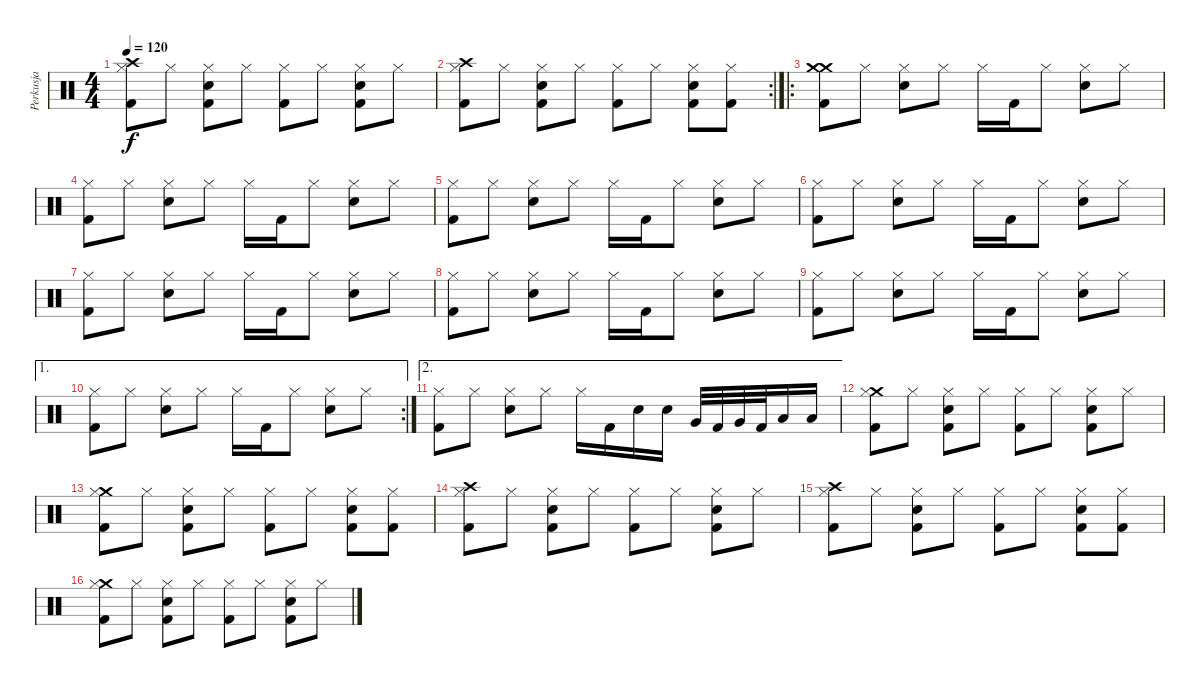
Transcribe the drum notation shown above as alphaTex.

\track ("Perkusja" "Perkusja") {instrument percussion}
\staff {score}
\articulation defaults
\ts (4 4)
\tempo 120
\clef neutral
\ks c
("Crash high (hit)" "Hi-Hat (closed)" "Kick (hit) 2").8{dy f} "Hi-Hat (closed)".8 ("Hi-Hat (closed)" "Electric Snare (hit)" "Kick (hit) 2").8 "Hi-Hat (closed)".8 ("Hi-Hat (closed)" "Kick (hit) 2").8 "Hi-Hat (closed)".8 ("Hi-Hat (closed)" "Electric Snare (hit)" "Kick (hit) 2").8 "Hi-Hat (closed)".8 |
\rc 2
("Crash high (hit)" "Hi-Hat (closed)" "Kick (hit) 2").8 "Hi-Hat (closed)".8 ("Hi-Hat (closed)" "Electric Snare (hit)" "Kick (hit) 2").8 "Hi-Hat (closed)".8 ("Hi-Hat (closed)" "Kick (hit) 2").8 "Hi-Hat (closed)".8 ("Hi-Hat (closed)" "Electric Snare (hit)" "Kick (hit) 2").8 ("Hi-Hat (closed)" "Kick (hit) 2").8 |
\ro
("Crash medium (hit)" "Crash medium (hit)" "Kick (hit) 2").8 "Hi-Hat (closed)".8 ("Hi-Hat (closed)" "Electric Snare (hit)").8 "Hi-Hat (closed)".8 "Hi-Hat (closed)".16 "Kick (hit) 2".16 "Hi-Hat (closed)".8 ("Hi-Hat (closed)" "Electric Snare (hit)").8 "Hi-Hat (closed)".8 |
("Hi-Hat (closed)" "Kick (hit) 2").8 "Hi-Hat (closed)".8 ("Hi-Hat (closed)" "Electric Snare (hit)").8 "Hi-Hat (closed)".8 "Hi-Hat (closed)".16 "Kick (hit) 2".16 "Hi-Hat (closed)".8 ("Hi-Hat (closed)" "Electric Snare (hit)").8 "Hi-Hat (closed)".8 |
("Hi-Hat (closed)" "Kick (hit) 2").8 "Hi-Hat (closed)".8 ("Hi-Hat (closed)" "Electric Snare (hit)").8 "Hi-Hat (closed)".8 "Hi-Hat (closed)".16 "Kick (hit) 2".16 "Hi-Hat (closed)".8 ("Hi-Hat (closed)" "Electric Snare (hit)").8 "Hi-Hat (closed)".8 |
("Hi-Hat (closed)" "Kick (hit) 2").8 "Hi-Hat (closed)".8 ("Hi-Hat (closed)" "Electric Snare (hit)").8 "Hi-Hat (closed)".8 "Hi-Hat (closed)".16 "Kick (hit) 2".16 "Hi-Hat (closed)".8 ("Hi-Hat (closed)" "Electric Snare (hit)").8 "Hi-Hat (closed)".8 |
("Hi-Hat (closed)" "Kick (hit) 2").8 "Hi-Hat (closed)".8 ("Hi-Hat (closed)" "Electric Snare (hit)").8 "Hi-Hat (closed)".8 "Hi-Hat (closed)".16 "Kick (hit) 2".16 "Hi-Hat (closed)".8 ("Hi-Hat (closed)" "Electric Snare (hit)").8 "Hi-Hat (closed)".8 |
("Hi-Hat (closed)" "Kick (hit) 2").8 "Hi-Hat (closed)".8 ("Hi-Hat (closed)" "Electric Snare (hit)").8 "Hi-Hat (closed)".8 "Hi-Hat (closed)".16 "Kick (hit) 2".16 "Hi-Hat (closed)".8 ("Hi-Hat (closed)" "Electric Snare (hit)").8 "Hi-Hat (closed)".8 |
("Hi-Hat (closed)" "Kick (hit) 2").8 "Hi-Hat (closed)".8 ("Hi-Hat (closed)" "Electric Snare (hit)").8 "Hi-Hat (closed)".8 "Hi-Hat (closed)".16 "Kick (hit) 2".16 "Hi-Hat (closed)".8 ("Hi-Hat (closed)" "Electric Snare (hit)").8 "Hi-Hat (closed)".8 |
\ae 1
\rc 2
("Hi-Hat (closed)" "Kick (hit) 2").8 "Hi-Hat (closed)".8 ("Hi-Hat (closed)" "Electric Snare (hit)").8 "Hi-Hat (closed)".8 "Hi-Hat (closed)".16 "Kick (hit) 2".16 "Hi-Hat (closed)".8 ("Hi-Hat (closed)" "Electric Snare (hit)").8 "Hi-Hat (closed)".8 |
\ae 2
("Hi-Hat (closed)" "Kick (hit) 2").8 "Hi-Hat (closed)".8 ("Hi-Hat (closed)" "Electric Snare (hit)").8 "Hi-Hat (closed)".8 "Hi-Hat (closed)".16 "Kick (hit) 2".16 "Electric Snare (hit)".16 "Electric Snare (hit)".16 "Very Low Tom (hit)".32 "Kick (hit) 2".32 "Very Low Tom (hit)".32 "Kick (hit) 2".32 "Low Floor Tom (hit)".16 "Low Floor Tom (hit)".16 |
("Crash medium (hit)" "Hi-Hat (closed)" "Kick (hit) 2").8 "Hi-Hat (closed)".8 ("Hi-Hat (closed)" "Electric Snare (hit)" "Kick (hit) 2").8 "Hi-Hat (closed)".8 ("Hi-Hat (closed)" "Kick (hit) 2").8 "Hi-Hat (closed)".8 ("Hi-Hat (closed)" "Electric Snare (hit)" "Kick (hit) 2").8 "Hi-Hat (closed)".8 |
("Crash medium (hit)" "Hi-Hat (closed)" "Kick (hit) 2").8 "Hi-Hat (closed)".8 ("Hi-Hat (closed)" "Electric Snare (hit)" "Kick (hit) 2").8 "Hi-Hat (closed)".8 ("Hi-Hat (closed)" "Kick (hit) 2").8 "Hi-Hat (closed)".8 ("Hi-Hat (closed)" "Electric Snare (hit)" "Kick (hit) 2").8 ("Hi-Hat (closed)" "Kick (hit) 2").8 |
("Crash high (hit)" "Hi-Hat (closed)" "Kick (hit) 2").8 "Hi-Hat (closed)".8 ("Hi-Hat (closed)" "Electric Snare (hit)" "Kick (hit) 2").8 "Hi-Hat (closed)".8 ("Hi-Hat (closed)" "Kick (hit) 2").8 "Hi-Hat (closed)".8 ("Hi-Hat (closed)" "Electric Snare (hit)" "Kick (hit) 2").8 "Hi-Hat (closed)".8 |
("Crash high (hit)" "Hi-Hat (closed)" "Kick (hit) 2").8 "Hi-Hat (closed)".8 ("Hi-Hat (closed)" "Electric Snare (hit)" "Kick (hit) 2").8 "Hi-Hat (closed)".8 ("Hi-Hat (closed)" "Kick (hit) 2").8 "Hi-Hat (closed)".8 ("Hi-Hat (closed)" "Electric Snare (hit)" "Kick (hit) 2").8 ("Hi-Hat (closed)" "Kick (hit) 2").8 |
("Crash medium (hit)" "Hi-Hat (closed)" "Kick (hit) 2").8 "Hi-Hat (closed)".8 ("Hi-Hat (closed)" "Electric Snare (hit)" "Kick (hit) 2").8 "Hi-Hat (closed)".8 ("Hi-Hat (closed)" "Kick (hit) 2").8 "Hi-Hat (closed)".8 ("Hi-Hat (closed)" "Electric Snare (hit)" "Kick (hit) 2").8 "Hi-Hat (closed)".8
